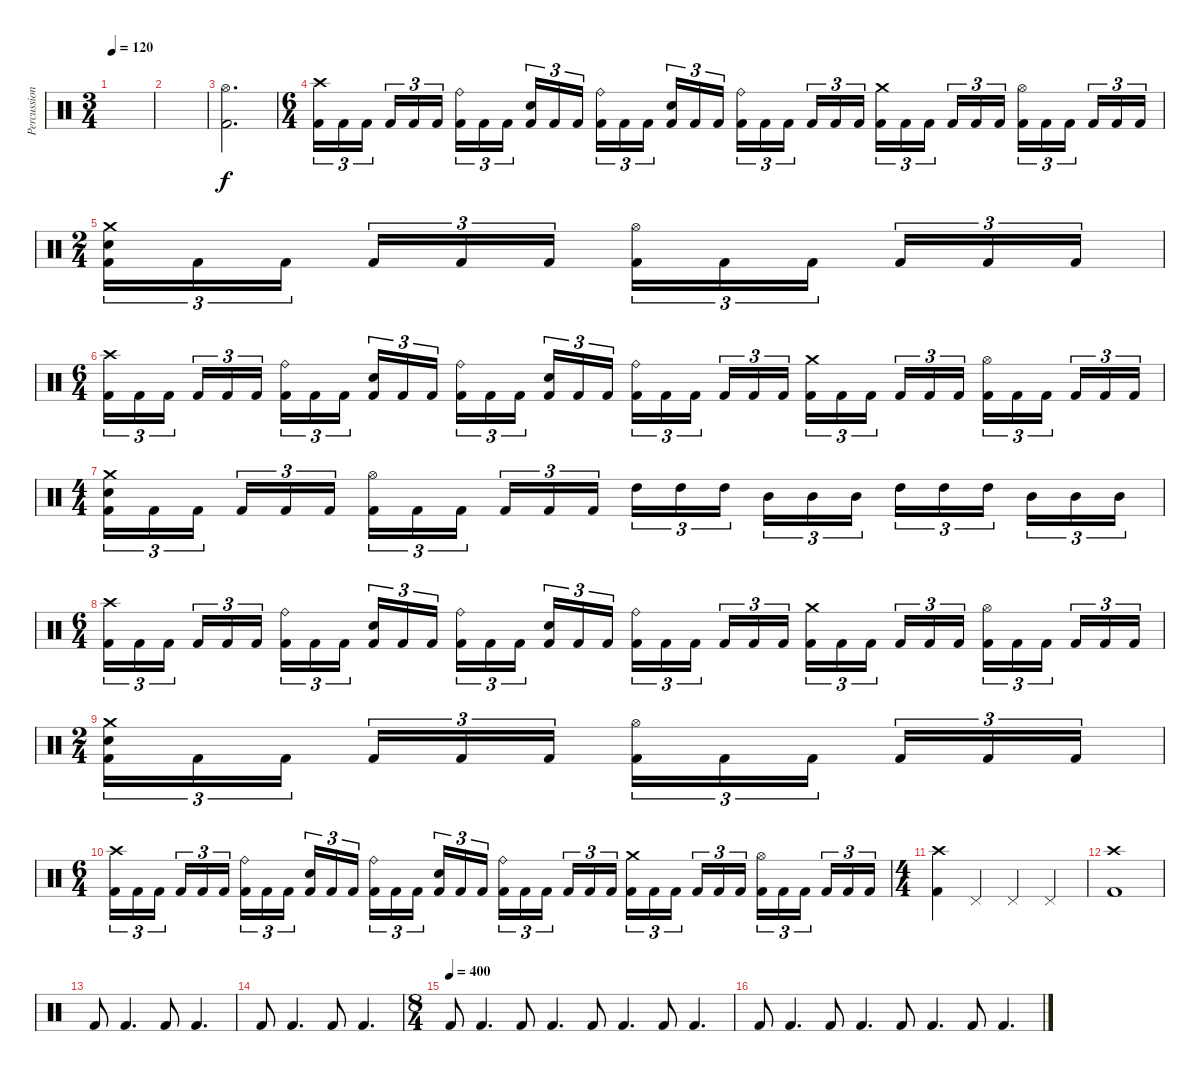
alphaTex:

\track ("Percussion" "Percussion") {instrument percussion}
\staff {score}
\articulation defaults
\ts (3 4)
\tempo 120
\clef neutral
\ks c
|
|
("Hi-Hat (open)" "Kick (hit) 2").2{d} |
\ts (6 4)
("Crash high (hit)" "Kick (hit) 2").16{tu (3 2)} "Kick (hit) 2".16{tu (3 2)} "Kick (hit) 2".16{tu (3 2) beam splitsecondary} "Kick (hit) 2".16{tu (3 2)} "Kick (hit) 2".16{tu (3 2)} "Kick (hit) 2".16{tu (3 2) beam splitsecondary} ("Ride (bell)" "Kick (hit) 2").16{tu (3 2)} "Kick (hit) 2".16{tu (3 2)} "Kick (hit) 2".16{tu (3 2) beam splitsecondary} ("Electric Snare (hit)" "Kick (hit) 2").16{tu (3 2)} "Kick (hit) 2".16{tu (3 2)} "Kick (hit) 2".16{tu (3 2) beam splitsecondary} ("Ride (bell)" "Kick (hit) 2").16{tu (3 2)} "Kick (hit) 2".16{tu (3 2)} "Kick (hit) 2".16{tu (3 2) beam splitsecondary} ("Electric Snare (hit)" "Kick (hit) 2").16{tu (3 2)} "Kick (hit) 2".16{tu (3 2)} "Kick (hit) 2".16{tu (3 2)} ("Ride (bell)" "Kick (hit) 2").16{tu (3 2)} "Kick (hit) 2".16{tu (3 2)} "Kick (hit) 2".16{tu (3 2) beam splitsecondary} "Kick (hit) 2".16{tu (3 2)} "Kick (hit) 2".16{tu (3 2)} "Kick (hit) 2".16{tu (3 2) beam splitsecondary} ("Crash medium (hit)" "Kick (hit) 2").16{tu (3 2)} "Kick (hit) 2".16{tu (3 2)} "Kick (hit) 2".16{tu (3 2) beam splitsecondary} "Kick (hit) 2".16{tu (3 2)} "Kick (hit) 2".16{tu (3 2)} "Kick (hit) 2".16{tu (3 2) beam splitsecondary} ("Hi-Hat (open)" "Kick (hit) 2").16{tu (3 2)} "Kick (hit) 2".16{tu (3 2)} "Kick (hit) 2".16{tu (3 2) beam splitsecondary} "Kick (hit) 2".16{tu (3 2)} "Kick (hit) 2".16{tu (3 2)} "Kick (hit) 2".16{tu (3 2)} |
\ts (2 4)
("Electric Snare (hit)" "Crash medium (hit)" "Kick (hit) 2").16{tu (3 2)} "Kick (hit) 2".16{tu (3 2)} "Kick (hit) 2".16{tu (3 2) beam splitsecondary} "Kick (hit) 2".16{tu (3 2)} "Kick (hit) 2".16{tu (3 2)} "Kick (hit) 2".16{tu (3 2)} ("Hi-Hat (open)" "Kick (hit) 2").16{tu (3 2)} "Kick (hit) 2".16{tu (3 2)} "Kick (hit) 2".16{tu (3 2) beam splitsecondary} "Kick (hit) 2".16{tu (3 2)} "Kick (hit) 2".16{tu (3 2)} "Kick (hit) 2".16{tu (3 2)} |
\ts (6 4)
("Crash high (hit)" "Kick (hit) 2").16{tu (3 2)} "Kick (hit) 2".16{tu (3 2)} "Kick (hit) 2".16{tu (3 2) beam splitsecondary} "Kick (hit) 2".16{tu (3 2)} "Kick (hit) 2".16{tu (3 2)} "Kick (hit) 2".16{tu (3 2) beam splitsecondary} ("Ride (bell)" "Kick (hit) 2").16{tu (3 2)} "Kick (hit) 2".16{tu (3 2)} "Kick (hit) 2".16{tu (3 2) beam splitsecondary} ("Electric Snare (hit)" "Kick (hit) 2").16{tu (3 2)} "Kick (hit) 2".16{tu (3 2)} "Kick (hit) 2".16{tu (3 2) beam splitsecondary} ("Ride (bell)" "Kick (hit) 2").16{tu (3 2)} "Kick (hit) 2".16{tu (3 2)} "Kick (hit) 2".16{tu (3 2) beam splitsecondary} ("Electric Snare (hit)" "Kick (hit) 2").16{tu (3 2)} "Kick (hit) 2".16{tu (3 2)} "Kick (hit) 2".16{tu (3 2)} ("Ride (bell)" "Kick (hit) 2").16{tu (3 2)} "Kick (hit) 2".16{tu (3 2)} "Kick (hit) 2".16{tu (3 2) beam splitsecondary} "Kick (hit) 2".16{tu (3 2)} "Kick (hit) 2".16{tu (3 2)} "Kick (hit) 2".16{tu (3 2) beam splitsecondary} ("Crash medium (hit)" "Kick (hit) 2").16{tu (3 2)} "Kick (hit) 2".16{tu (3 2)} "Kick (hit) 2".16{tu (3 2) beam splitsecondary} "Kick (hit) 2".16{tu (3 2)} "Kick (hit) 2".16{tu (3 2)} "Kick (hit) 2".16{tu (3 2) beam splitsecondary} ("Hi-Hat (open)" "Kick (hit) 2").16{tu (3 2)} "Kick (hit) 2".16{tu (3 2)} "Kick (hit) 2".16{tu (3 2) beam splitsecondary} "Kick (hit) 2".16{tu (3 2)} "Kick (hit) 2".16{tu (3 2)} "Kick (hit) 2".16{tu (3 2)} |
\ts (4 4)
("Electric Snare (hit)" "Crash medium (hit)" "Kick (hit) 2").16{tu (3 2)} "Kick (hit) 2".16{tu (3 2)} "Kick (hit) 2".16{tu (3 2) beam splitsecondary} "Kick (hit) 2".16{tu (3 2)} "Kick (hit) 2".16{tu (3 2)} "Kick (hit) 2".16{tu (3 2)} ("Hi-Hat (open)" "Kick (hit) 2").16{tu (3 2)} "Kick (hit) 2".16{tu (3 2)} "Kick (hit) 2".16{tu (3 2) beam splitsecondary} "Kick (hit) 2".16{tu (3 2)} "Kick (hit) 2".16{tu (3 2)} "Kick (hit) 2".16{tu (3 2)} "High Tom (hit)".16{tu (3 2)} "High Tom (hit)".16{tu (3 2)} "High Tom (hit)".16{tu (3 2) beam splitsecondary} "Mid Tom (hit)".16{tu (3 2)} "Mid Tom (hit)".16{tu (3 2)} "Mid Tom (hit)".16{tu (3 2)} "High Tom (hit)".16{tu (3 2)} "High Tom (hit)".16{tu (3 2)} "High Tom (hit)".16{tu (3 2) beam splitsecondary} "Mid Tom (hit)".16{tu (3 2)} "Mid Tom (hit)".16{tu (3 2)} "Mid Tom (hit)".16{tu (3 2)} |
\ts (6 4)
("Crash high (hit)" "Kick (hit) 2").16{tu (3 2)} "Kick (hit) 2".16{tu (3 2)} "Kick (hit) 2".16{tu (3 2) beam splitsecondary} "Kick (hit) 2".16{tu (3 2)} "Kick (hit) 2".16{tu (3 2)} "Kick (hit) 2".16{tu (3 2) beam splitsecondary} ("Ride (bell)" "Kick (hit) 2").16{tu (3 2)} "Kick (hit) 2".16{tu (3 2)} "Kick (hit) 2".16{tu (3 2) beam splitsecondary} ("Electric Snare (hit)" "Kick (hit) 2").16{tu (3 2)} "Kick (hit) 2".16{tu (3 2)} "Kick (hit) 2".16{tu (3 2) beam splitsecondary} ("Ride (bell)" "Kick (hit) 2").16{tu (3 2)} "Kick (hit) 2".16{tu (3 2)} "Kick (hit) 2".16{tu (3 2) beam splitsecondary} ("Electric Snare (hit)" "Kick (hit) 2").16{tu (3 2)} "Kick (hit) 2".16{tu (3 2)} "Kick (hit) 2".16{tu (3 2)} ("Ride (bell)" "Kick (hit) 2").16{tu (3 2)} "Kick (hit) 2".16{tu (3 2)} "Kick (hit) 2".16{tu (3 2) beam splitsecondary} "Kick (hit) 2".16{tu (3 2)} "Kick (hit) 2".16{tu (3 2)} "Kick (hit) 2".16{tu (3 2) beam splitsecondary} ("Crash medium (hit)" "Kick (hit) 2").16{tu (3 2)} "Kick (hit) 2".16{tu (3 2)} "Kick (hit) 2".16{tu (3 2) beam splitsecondary} "Kick (hit) 2".16{tu (3 2)} "Kick (hit) 2".16{tu (3 2)} "Kick (hit) 2".16{tu (3 2) beam splitsecondary} ("Hi-Hat (open)" "Kick (hit) 2").16{tu (3 2)} "Kick (hit) 2".16{tu (3 2)} "Kick (hit) 2".16{tu (3 2) beam splitsecondary} "Kick (hit) 2".16{tu (3 2)} "Kick (hit) 2".16{tu (3 2)} "Kick (hit) 2".16{tu (3 2)} |
\ts (2 4)
("Electric Snare (hit)" "Crash medium (hit)" "Kick (hit) 2").16{tu (3 2)} "Kick (hit) 2".16{tu (3 2)} "Kick (hit) 2".16{tu (3 2) beam splitsecondary} "Kick (hit) 2".16{tu (3 2)} "Kick (hit) 2".16{tu (3 2)} "Kick (hit) 2".16{tu (3 2)} ("Hi-Hat (open)" "Kick (hit) 2").16{tu (3 2)} "Kick (hit) 2".16{tu (3 2)} "Kick (hit) 2".16{tu (3 2) beam splitsecondary} "Kick (hit) 2".16{tu (3 2)} "Kick (hit) 2".16{tu (3 2)} "Kick (hit) 2".16{tu (3 2)} |
\ts (6 4)
("Crash high (hit)" "Kick (hit) 2").16{tu (3 2)} "Kick (hit) 2".16{tu (3 2)} "Kick (hit) 2".16{tu (3 2) beam splitsecondary} "Kick (hit) 2".16{tu (3 2)} "Kick (hit) 2".16{tu (3 2)} "Kick (hit) 2".16{tu (3 2) beam splitsecondary} ("Ride (bell)" "Kick (hit) 2").16{tu (3 2)} "Kick (hit) 2".16{tu (3 2)} "Kick (hit) 2".16{tu (3 2) beam splitsecondary} ("Electric Snare (hit)" "Kick (hit) 2").16{tu (3 2)} "Kick (hit) 2".16{tu (3 2)} "Kick (hit) 2".16{tu (3 2) beam splitsecondary} ("Ride (bell)" "Kick (hit) 2").16{tu (3 2)} "Kick (hit) 2".16{tu (3 2)} "Kick (hit) 2".16{tu (3 2) beam splitsecondary} ("Electric Snare (hit)" "Kick (hit) 2").16{tu (3 2)} "Kick (hit) 2".16{tu (3 2)} "Kick (hit) 2".16{tu (3 2)} ("Ride (bell)" "Kick (hit) 2").16{tu (3 2)} "Kick (hit) 2".16{tu (3 2)} "Kick (hit) 2".16{tu (3 2) beam splitsecondary} "Kick (hit) 2".16{tu (3 2)} "Kick (hit) 2".16{tu (3 2)} "Kick (hit) 2".16{tu (3 2) beam splitsecondary} ("Crash medium (hit)" "Kick (hit) 2").16{tu (3 2)} "Kick (hit) 2".16{tu (3 2)} "Kick (hit) 2".16{tu (3 2) beam splitsecondary} "Kick (hit) 2".16{tu (3 2)} "Kick (hit) 2".16{tu (3 2)} "Kick (hit) 2".16{tu (3 2) beam splitsecondary} ("Hi-Hat (open)" "Kick (hit) 2").16{tu (3 2)} "Kick (hit) 2".16{tu (3 2)} "Kick (hit) 2".16{tu (3 2) beam splitsecondary} "Kick (hit) 2".16{tu (3 2)} "Kick (hit) 2".16{tu (3 2)} "Kick (hit) 2".16{tu (3 2)} |
\ts (4 4)
("Crash high (hit)" "Kick (hit) 2").4 "Pedal Hi-Hat (hit)".4 "Pedal Hi-Hat (hit)".4 "Pedal Hi-Hat (hit)".4 |
("Crash high (hit)" "Kick (hit) 2").1 |
"Kick (hit) 2".8 "Kick (hit) 2".4{d} "Kick (hit) 2".8 "Kick (hit) 2".4{d} |
"Kick (hit) 2".8 "Kick (hit) 2".4{d} "Kick (hit) 2".8 "Kick (hit) 2".4{d} |
\ts (8 4)
\tempo (400)
"Kick (hit) 2".8 "Kick (hit) 2".4{d} "Kick (hit) 2".8 "Kick (hit) 2".4{d} "Kick (hit) 2".8 "Kick (hit) 2".4{d} "Kick (hit) 2".8 "Kick (hit) 2".4{d} |
"Kick (hit) 2".8 "Kick (hit) 2".4{d} "Kick (hit) 2".8 "Kick (hit) 2".4{d} "Kick (hit) 2".8 "Kick (hit) 2".4{d} "Kick (hit) 2".8 "Kick (hit) 2".4{d}
